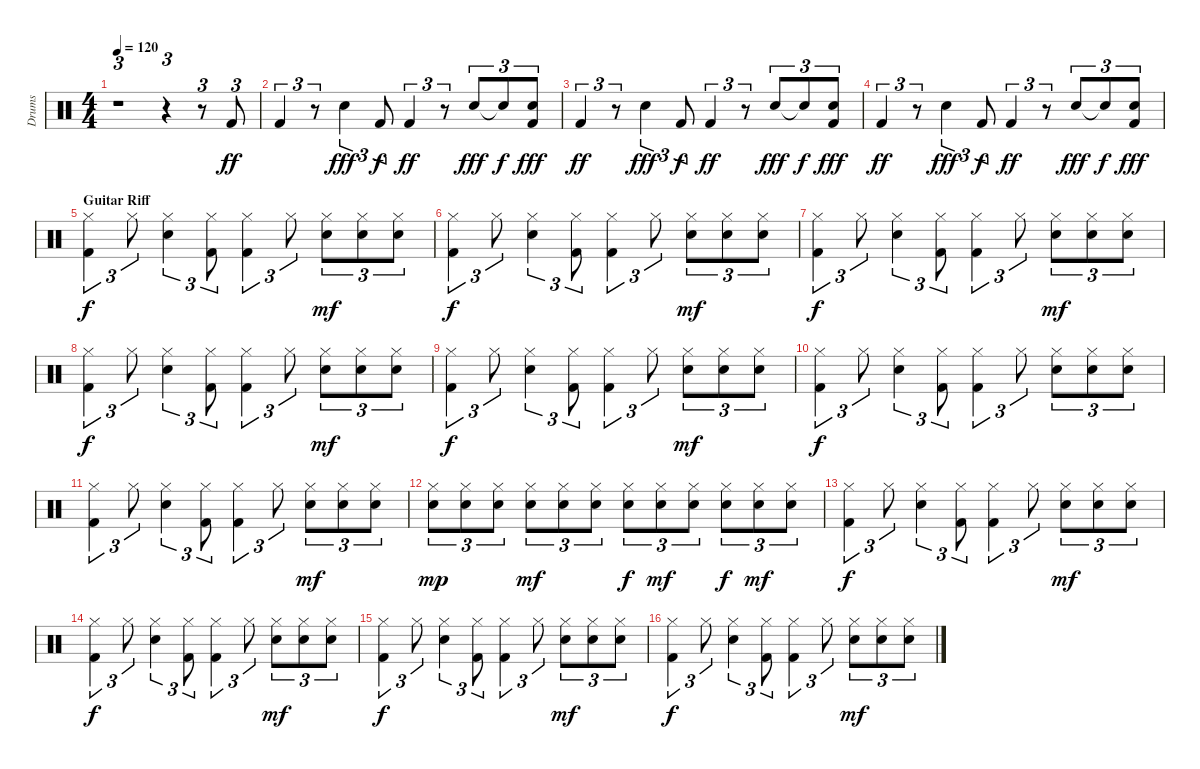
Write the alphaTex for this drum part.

\track ("Drums" "Drums") {instrument percussion}
\staff {score}
\articulation defaults
\ts (4 4)
\tempo 120
\clef neutral
\ks c
r.1{tu (3 2) dy ff} r.4{tu (3 2)} r.8{tu (3 2)} "Kick (hit) 2".8{tu (3 2)} |
"Kick (hit) 2".4{tu (3 2)} r.8{tu (3 2)} "Hand Clap (hit)".4{tu (3 2) dy fff} "Kick (hit) 2".8{tu (3 2) dy f} "Kick (hit) 2".4{tu (3 2) dy ff} r.8{tu (3 2)} "Hand Clap (hit)".8{tu (3 2) dy fff} "Hand Clap (hit)"{t}.8{tu (3 2) dy f} ("Hand Clap (hit)" "Kick (hit) 2").8{tu (3 2) dy fff} |
"Kick (hit) 2".4{tu (3 2) dy ff} r.8{tu (3 2)} "Hand Clap (hit)".4{tu (3 2) dy fff} "Kick (hit) 2".8{tu (3 2) dy f} "Kick (hit) 2".4{tu (3 2) dy ff} r.8{tu (3 2)} "Hand Clap (hit)".8{tu (3 2) dy fff} "Hand Clap (hit)"{t}.8{tu (3 2) dy f} ("Hand Clap (hit)" "Kick (hit) 2").8{tu (3 2) dy fff} |
"Kick (hit) 2".4{tu (3 2) dy ff} r.8{tu (3 2)} "Hand Clap (hit)".4{tu (3 2) dy fff} "Kick (hit) 2".8{tu (3 2) dy f} "Kick (hit) 2".4{tu (3 2) dy ff} r.8{tu (3 2)} "Hand Clap (hit)".8{tu (3 2) dy fff} "Hand Clap (hit)"{t}.8{tu (3 2) dy f} ("Hand Clap (hit)" "Kick (hit) 2").8{tu (3 2) dy fff} |
\section ("" "Guitar Riff")
("Hi-Hat (closed)" "Kick (hit) 2").4{tu (3 2) dy f} "Hi-Hat (closed)".8{tu (3 2)} ("Hi-Hat (closed)" "Electric Snare (hit)").4{tu (3 2)} ("Hi-Hat (closed)" "Kick (hit) 2").8{tu (3 2)} ("Hi-Hat (closed)" "Kick (hit) 2").4{tu (3 2)} "Hi-Hat (closed)".8{tu (3 2)} ("Hi-Hat (closed)" "Electric Snare (hit)").8{tu (3 2) dy mf} ("Hi-Hat (closed)" "Electric Snare (hit)").8{tu (3 2)} ("Hi-Hat (closed)" "Electric Snare (hit)").8{tu (3 2)} |
("Hi-Hat (closed)" "Kick (hit) 2").4{tu (3 2) dy f} "Hi-Hat (closed)".8{tu (3 2)} ("Hi-Hat (closed)" "Electric Snare (hit)").4{tu (3 2)} ("Hi-Hat (closed)" "Kick (hit) 2").8{tu (3 2)} ("Hi-Hat (closed)" "Kick (hit) 2").4{tu (3 2)} "Hi-Hat (closed)".8{tu (3 2)} ("Hi-Hat (closed)" "Electric Snare (hit)").8{tu (3 2) dy mf} ("Hi-Hat (closed)" "Electric Snare (hit)").8{tu (3 2)} ("Hi-Hat (closed)" "Electric Snare (hit)").8{tu (3 2)} |
("Hi-Hat (closed)" "Kick (hit) 2").4{tu (3 2) dy f} "Hi-Hat (closed)".8{tu (3 2)} ("Hi-Hat (closed)" "Electric Snare (hit)").4{tu (3 2)} ("Hi-Hat (closed)" "Kick (hit) 2").8{tu (3 2)} ("Hi-Hat (closed)" "Kick (hit) 2").4{tu (3 2)} "Hi-Hat (closed)".8{tu (3 2)} ("Hi-Hat (closed)" "Electric Snare (hit)").8{tu (3 2) dy mf} ("Hi-Hat (closed)" "Electric Snare (hit)").8{tu (3 2)} ("Hi-Hat (closed)" "Electric Snare (hit)").8{tu (3 2)} |
("Hi-Hat (closed)" "Kick (hit) 2").4{tu (3 2) dy f} "Hi-Hat (closed)".8{tu (3 2)} ("Hi-Hat (closed)" "Electric Snare (hit)").4{tu (3 2)} ("Hi-Hat (closed)" "Kick (hit) 2").8{tu (3 2)} ("Hi-Hat (closed)" "Kick (hit) 2").4{tu (3 2)} "Hi-Hat (closed)".8{tu (3 2)} ("Hi-Hat (closed)" "Electric Snare (hit)").8{tu (3 2) dy mf} ("Hi-Hat (closed)" "Electric Snare (hit)").8{tu (3 2)} ("Hi-Hat (closed)" "Electric Snare (hit)").8{tu (3 2)} |
("Hi-Hat (closed)" "Kick (hit) 2").4{tu (3 2) dy f} "Hi-Hat (closed)".8{tu (3 2)} ("Hi-Hat (closed)" "Electric Snare (hit)").4{tu (3 2)} ("Hi-Hat (closed)" "Kick (hit) 2").8{tu (3 2)} ("Hi-Hat (closed)" "Kick (hit) 2").4{tu (3 2)} "Hi-Hat (closed)".8{tu (3 2)} ("Hi-Hat (closed)" "Electric Snare (hit)").8{tu (3 2) dy mf} ("Hi-Hat (closed)" "Electric Snare (hit)").8{tu (3 2)} ("Hi-Hat (closed)" "Electric Snare (hit)").8{tu (3 2)} |
("Hi-Hat (closed)" "Kick (hit) 2").4{tu (3 2) dy f} "Hi-Hat (closed)".8{tu (3 2)} ("Hi-Hat (closed)" "Electric Snare (hit)").4{tu (3 2)} ("Hi-Hat (closed)" "Kick (hit) 2").8{tu (3 2)} ("Hi-Hat (closed)" "Kick (hit) 2").4{tu (3 2)} "Hi-Hat (closed)".8{tu (3 2)} ("Hi-Hat (closed)" "Electric Snare (hit)").8{tu (3 2)} ("Hi-Hat (closed)" "Electric Snare (hit)").8{tu (3 2)} ("Hi-Hat (closed)" "Electric Snare (hit)").8{tu (3 2)} |
("Hi-Hat (closed)" "Kick (hit) 2").4{tu (3 2)} "Hi-Hat (closed)".8{tu (3 2)} ("Hi-Hat (closed)" "Electric Snare (hit)").4{tu (3 2)} ("Hi-Hat (closed)" "Kick (hit) 2").8{tu (3 2)} ("Hi-Hat (closed)" "Kick (hit) 2").4{tu (3 2)} "Hi-Hat (closed)".8{tu (3 2)} ("Hi-Hat (closed)" "Electric Snare (hit)").8{tu (3 2) dy mf} ("Hi-Hat (closed)" "Electric Snare (hit)").8{tu (3 2)} ("Hi-Hat (closed)" "Electric Snare (hit)").8{tu (3 2)} |
("Hi-Hat (closed)" "Electric Snare (hit)").8{tu (3 2) dy mp} ("Hi-Hat (closed)" "Electric Snare (hit)").8{tu (3 2)} ("Hi-Hat (closed)" "Electric Snare (hit)").8{tu (3 2)} ("Hi-Hat (closed)" "Electric Snare (hit)").8{tu (3 2) dy mf} ("Hi-Hat (closed)" "Electric Snare (hit)").8{tu (3 2)} ("Hi-Hat (closed)" "Electric Snare (hit)").8{tu (3 2)} ("Hi-Hat (closed)" "Electric Snare (hit)").8{tu (3 2) dy f} ("Hi-Hat (closed)" "Electric Snare (hit)").8{tu (3 2) dy mf} ("Hi-Hat (closed)" "Electric Snare (hit)").8{tu (3 2)} ("Hi-Hat (closed)" "Electric Snare (hit)").8{tu (3 2) dy f} ("Hi-Hat (closed)" "Electric Snare (hit)").8{tu (3 2) dy mf} ("Hi-Hat (closed)" "Electric Snare (hit)").8{tu (3 2)} |
("Hi-Hat (closed)" "Kick (hit) 2").4{tu (3 2) dy f} "Hi-Hat (closed)".8{tu (3 2)} ("Hi-Hat (closed)" "Electric Snare (hit)").4{tu (3 2)} ("Hi-Hat (closed)" "Kick (hit) 2").8{tu (3 2)} ("Hi-Hat (closed)" "Kick (hit) 2").4{tu (3 2)} "Hi-Hat (closed)".8{tu (3 2)} ("Hi-Hat (closed)" "Electric Snare (hit)").8{tu (3 2) dy mf} ("Hi-Hat (closed)" "Electric Snare (hit)").8{tu (3 2)} ("Hi-Hat (closed)" "Electric Snare (hit)").8{tu (3 2)} |
("Hi-Hat (closed)" "Kick (hit) 2").4{tu (3 2) dy f} "Hi-Hat (closed)".8{tu (3 2)} ("Hi-Hat (closed)" "Electric Snare (hit)").4{tu (3 2)} ("Hi-Hat (closed)" "Kick (hit) 2").8{tu (3 2)} ("Hi-Hat (closed)" "Kick (hit) 2").4{tu (3 2)} "Hi-Hat (closed)".8{tu (3 2)} ("Hi-Hat (closed)" "Electric Snare (hit)").8{tu (3 2) dy mf} ("Hi-Hat (closed)" "Electric Snare (hit)").8{tu (3 2)} ("Hi-Hat (closed)" "Electric Snare (hit)").8{tu (3 2)} |
("Hi-Hat (closed)" "Kick (hit) 2").4{tu (3 2) dy f} "Hi-Hat (closed)".8{tu (3 2)} ("Hi-Hat (closed)" "Electric Snare (hit)").4{tu (3 2)} ("Hi-Hat (closed)" "Kick (hit) 2").8{tu (3 2)} ("Hi-Hat (closed)" "Kick (hit) 2").4{tu (3 2)} "Hi-Hat (closed)".8{tu (3 2)} ("Hi-Hat (closed)" "Electric Snare (hit)").8{tu (3 2) dy mf} ("Hi-Hat (closed)" "Electric Snare (hit)").8{tu (3 2)} ("Hi-Hat (closed)" "Electric Snare (hit)").8{tu (3 2)} |
("Hi-Hat (closed)" "Kick (hit) 2").4{tu (3 2) dy f} "Hi-Hat (closed)".8{tu (3 2)} ("Hi-Hat (closed)" "Electric Snare (hit)").4{tu (3 2)} ("Hi-Hat (closed)" "Kick (hit) 2").8{tu (3 2)} ("Hi-Hat (closed)" "Kick (hit) 2").4{tu (3 2)} "Hi-Hat (closed)".8{tu (3 2)} ("Hi-Hat (closed)" "Electric Snare (hit)").8{tu (3 2) dy mf} ("Hi-Hat (closed)" "Electric Snare (hit)").8{tu (3 2)} ("Hi-Hat (closed)" "Electric Snare (hit)").8{tu (3 2)}
